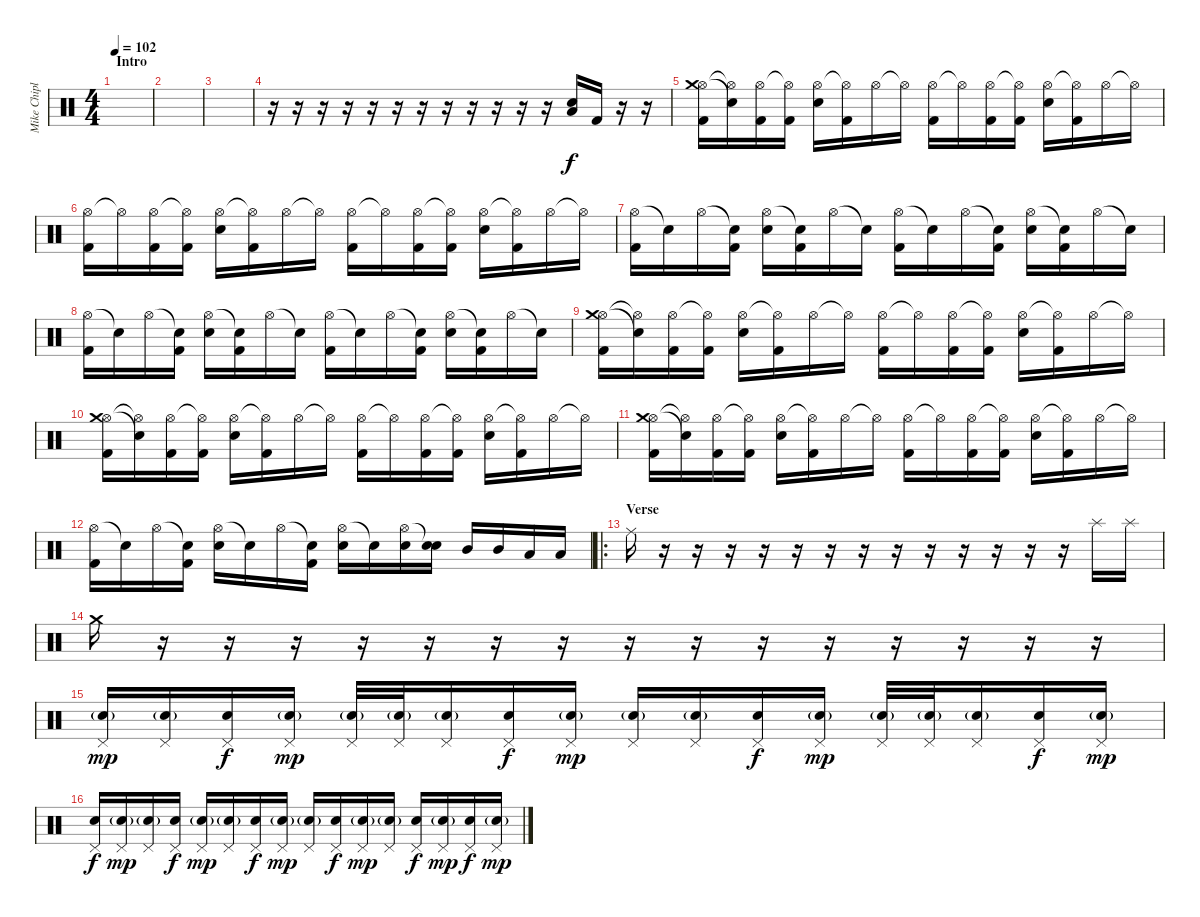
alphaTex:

\track ("Mike Chiplin" "Mike Chipl") {instrument percussion}
\staff {score}
\articulation defaults
\ts (4 4)
\section ("" "Intro")
\tempo 102
\clef neutral
\ks c
|
|
|
r.16 r.16 r.16 r.16 r.16 r.16 r.16 r.16 r.16 r.16 r.16 r.16 ("Electric Snare (hit)" "Low Floor Tom (hit)").16 "Kick (hit) 2".16 r.16 r.16 |
("Hi-Hat (open)" "Crash medium (hit)" "Kick (hit) 2").16 ("Hi-Hat (open)"{t} "Snare (hit)"{t}).16 ("Hi-Hat (open)" "Kick (hit) 2").16 ("Hi-Hat (open)"{t} "Kick (hit) 2").16 ("Hi-Hat (open)" "Electric Snare (hit)").16 ("Hi-Hat (open)"{t} "Kick (hit) 2").16 "Hi-Hat (open)".16 "Hi-Hat (open)"{t}.16 ("Hi-Hat (open)" "Kick (hit) 2").16 "Hi-Hat (open)"{t}.16 ("Hi-Hat (open)" "Kick (hit) 2").16 ("Hi-Hat (open)"{t} "Kick (hit) 2").16 ("Hi-Hat (open)" "Electric Snare (hit)").16 ("Hi-Hat (open)"{t} "Kick (hit) 2").16 "Hi-Hat (open)".16 "Hi-Hat (open)"{t}.16 |
("Hi-Hat (open)" "Kick (hit) 2").16 "Hi-Hat (open)"{t}.16 ("Hi-Hat (open)" "Kick (hit) 2").16 ("Hi-Hat (open)"{t} "Kick (hit) 2").16 ("Hi-Hat (open)" "Electric Snare (hit)").16 ("Hi-Hat (open)"{t} "Kick (hit) 2").16 "Hi-Hat (open)".16 "Hi-Hat (open)"{t}.16 ("Hi-Hat (open)" "Kick (hit) 2").16 "Hi-Hat (open)"{t}.16 ("Hi-Hat (open)" "Kick (hit) 2").16 ("Hi-Hat (open)"{t} "Kick (hit) 2").16 ("Hi-Hat (open)" "Electric Snare (hit)").16 ("Hi-Hat (open)"{t} "Kick (hit) 2").16 "Hi-Hat (open)".16 "Hi-Hat (open)"{t}.16 |
("Hi-Hat (open)" "Kick (hit) 2").16 "Snare (hit)"{t}.16 "Hi-Hat (open)".16 ("Snare (hit)"{t} "Kick (hit) 2").16 ("Hi-Hat (open)" "Electric Snare (hit)").16 ("Snare (hit)"{t} "Kick (hit) 2").16 "Hi-Hat (open)".16 "Snare (hit)"{t}.16 ("Hi-Hat (open)" "Kick (hit) 2").16 "Snare (hit)"{t}.16 "Hi-Hat (open)".16 ("Snare (hit)"{t} "Kick (hit) 2").16 ("Hi-Hat (open)" "Electric Snare (hit)").16 ("Snare (hit)"{t} "Kick (hit) 2").16 "Hi-Hat (open)".16 "Snare (hit)"{t}.16 |
("Hi-Hat (open)" "Kick (hit) 2").16 "Snare (hit)"{t}.16 "Hi-Hat (open)".16 ("Snare (hit)"{t} "Kick (hit) 2").16 ("Hi-Hat (open)" "Electric Snare (hit)").16 ("Snare (hit)"{t} "Kick (hit) 2").16 "Hi-Hat (open)".16 "Snare (hit)"{t}.16 ("Hi-Hat (open)" "Kick (hit) 2").16 "Snare (hit)"{t}.16 "Hi-Hat (open)".16 ("Snare (hit)"{t} "Kick (hit) 2").16 ("Hi-Hat (open)" "Electric Snare (hit)").16 ("Snare (hit)"{t} "Kick (hit) 2").16 "Hi-Hat (open)".16 "Snare (hit)"{t}.16 |
("Hi-Hat (open)" "Crash medium (hit)" "Kick (hit) 2").16 ("Hi-Hat (open)"{t} "Snare (hit)"{t}).16 ("Hi-Hat (open)" "Kick (hit) 2").16 ("Hi-Hat (open)"{t} "Kick (hit) 2").16 ("Hi-Hat (open)" "Electric Snare (hit)").16 ("Hi-Hat (open)"{t} "Kick (hit) 2").16 "Hi-Hat (open)".16 "Hi-Hat (open)"{t}.16 ("Hi-Hat (open)" "Kick (hit) 2").16 "Hi-Hat (open)"{t}.16 ("Hi-Hat (open)" "Kick (hit) 2").16 ("Hi-Hat (open)"{t} "Kick (hit) 2").16 ("Hi-Hat (open)" "Electric Snare (hit)").16 ("Hi-Hat (open)"{t} "Kick (hit) 2").16 "Hi-Hat (open)".16 "Hi-Hat (open)"{t}.16 |
("Hi-Hat (open)" "Crash medium (hit)" "Kick (hit) 2").16 ("Hi-Hat (open)"{t} "Snare (hit)"{t}).16 ("Hi-Hat (open)" "Kick (hit) 2").16 ("Hi-Hat (open)"{t} "Kick (hit) 2").16 ("Hi-Hat (open)" "Electric Snare (hit)").16 ("Hi-Hat (open)"{t} "Kick (hit) 2").16 "Hi-Hat (open)".16 "Hi-Hat (open)"{t}.16 ("Hi-Hat (open)" "Kick (hit) 2").16 "Hi-Hat (open)"{t}.16 ("Hi-Hat (open)" "Kick (hit) 2").16 ("Hi-Hat (open)"{t} "Kick (hit) 2").16 ("Hi-Hat (open)" "Electric Snare (hit)").16 ("Hi-Hat (open)"{t} "Kick (hit) 2").16 "Hi-Hat (open)".16 "Hi-Hat (open)"{t}.16 |
("Hi-Hat (open)" "Crash medium (hit)" "Kick (hit) 2").16 ("Hi-Hat (open)"{t} "Snare (hit)"{t}).16 ("Hi-Hat (open)" "Kick (hit) 2").16 ("Hi-Hat (open)"{t} "Kick (hit) 2").16 ("Hi-Hat (open)" "Electric Snare (hit)").16 ("Hi-Hat (open)"{t} "Kick (hit) 2").16 "Hi-Hat (open)".16 "Hi-Hat (open)"{t}.16 ("Hi-Hat (open)" "Kick (hit) 2").16 "Hi-Hat (open)"{t}.16 ("Hi-Hat (open)" "Kick (hit) 2").16 ("Hi-Hat (open)"{t} "Kick (hit) 2").16 ("Hi-Hat (open)" "Electric Snare (hit)").16 ("Hi-Hat (open)"{t} "Kick (hit) 2").16 "Hi-Hat (open)".16 "Hi-Hat (open)"{t}.16 |
("Hi-Hat (open)" "Kick (hit) 2").16 "Snare (hit)"{t}.16 "Hi-Hat (open)".16 ("Snare (hit)"{t} "Kick (hit) 2").16 ("Hi-Hat (open)" "Electric Snare (hit)").16 "Snare (hit)"{t}.16 "Hi-Hat (open)".16 ("Snare (hit)"{t} "Kick (hit) 2").16 ("Hi-Hat (open)" "Electric Snare (hit)").16 "Snare (hit)"{t}.16 ("Hi-Hat (open)" "Electric Snare (hit)").16 ("Snare (hit)"{t} "Electric Snare (hit)").16 "Mid Tom (hit)".16 "Mid Tom (hit)".16 "Low Floor Tom (hit)".16 "Low Floor Tom (hit)".16 |
\ro
\section ("" "Verse")
"Ride (middle)".16 r.16 r.16 r.16 r.16 r.16 r.16 r.16 r.16 r.16 r.16 r.16 r.16 r.16 "Splash (hit)".16 "Splash (hit)".16 |
"Crash medium (hit)".16 r.16 r.16 r.16 r.16 r.16 r.16 r.16 r.16 r.16 r.16 r.16 r.16 r.16 r.16 r.16 |
("Pedal Hi-Hat (hit)" "Electric Snare (hit)"{g}).16{dy mp} ("Pedal Hi-Hat (hit)" "Electric Snare (hit)"{g}).16 ("Pedal Hi-Hat (hit)" "Electric Snare (hit)").16{dy f} ("Pedal Hi-Hat (hit)" "Electric Snare (hit)"{g}).16{dy mp} ("Pedal Hi-Hat (hit)" "Electric Snare (hit)"{g}).32 ("Pedal Hi-Hat (hit)" "Electric Snare (hit)"{g}).32 ("Pedal Hi-Hat (hit)" "Electric Snare (hit)"{g}).16 ("Pedal Hi-Hat (hit)" "Electric Snare (hit)").16{dy f} ("Pedal Hi-Hat (hit)" "Electric Snare (hit)"{g}).16{dy mp} ("Pedal Hi-Hat (hit)" "Electric Snare (hit)"{g}).16 ("Pedal Hi-Hat (hit)" "Electric Snare (hit)"{g}).16 ("Pedal Hi-Hat (hit)" "Electric Snare (hit)").16{dy f} ("Pedal Hi-Hat (hit)" "Electric Snare (hit)"{g}).16{dy mp} ("Pedal Hi-Hat (hit)" "Electric Snare (hit)"{g}).32 ("Pedal Hi-Hat (hit)" "Electric Snare (hit)"{g}).32 ("Pedal Hi-Hat (hit)" "Electric Snare (hit)"{g}).16 ("Pedal Hi-Hat (hit)" "Electric Snare (hit)").16{dy f} ("Pedal Hi-Hat (hit)" "Electric Snare (hit)"{g}).16{dy mp} |
("Pedal Hi-Hat (hit)" "Electric Snare (hit)").16{dy f} ("Pedal Hi-Hat (hit)" "Electric Snare (hit)"{g}).16{dy mp} ("Pedal Hi-Hat (hit)" "Electric Snare (hit)"{g}).16 ("Pedal Hi-Hat (hit)" "Electric Snare (hit)").16{dy f} ("Pedal Hi-Hat (hit)" "Electric Snare (hit)"{g}).16{dy mp} ("Pedal Hi-Hat (hit)" "Electric Snare (hit)"{g}).16 ("Pedal Hi-Hat (hit)" "Electric Snare (hit)").16{dy f} ("Pedal Hi-Hat (hit)" "Electric Snare (hit)"{g}).16{dy mp} ("Pedal Hi-Hat (hit)" "Electric Snare (hit)"{g}).16 ("Pedal Hi-Hat (hit)" "Electric Snare (hit)").16{dy f} ("Pedal Hi-Hat (hit)" "Electric Snare (hit)"{g}).16{dy mp} ("Pedal Hi-Hat (hit)" "Electric Snare (hit)"{g}).16 ("Pedal Hi-Hat (hit)" "Electric Snare (hit)").16{dy f} ("Pedal Hi-Hat (hit)" "Electric Snare (hit)"{g}).16{dy mp} ("Pedal Hi-Hat (hit)" "Electric Snare (hit)").16{dy f} ("Pedal Hi-Hat (hit)" "Electric Snare (hit)"{g}).16{dy mp}
